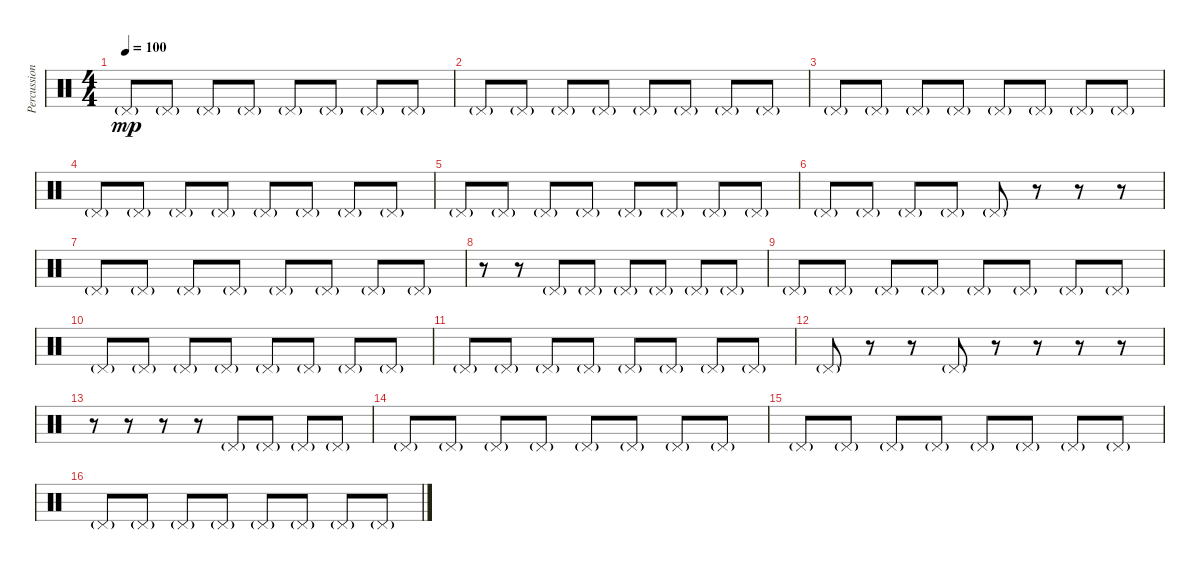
\track ("Percussion" "Percussion") {instrument percussion}
\staff {score}
\articulation defaults
\ts (4 4)
\tempo 100
\clef neutral
\ks c "Pedal Hi-Hat (hit)"{g}.8{dy mp} "Pedal Hi-Hat (hit)"{g}.8 "Pedal Hi-Hat (hit)"{g}.8 "Pedal Hi-Hat (hit)"{g}.8 "Pedal Hi-Hat (hit)"{g}.8 "Pedal Hi-Hat (hit)"{g}.8 "Pedal Hi-Hat (hit)"{g}.8 "Pedal Hi-Hat (hit)"{g}.8
|
"Pedal Hi-Hat (hit)"{g}.8 "Pedal Hi-Hat (hit)"{g}.8 "Pedal Hi-Hat (hit)"{g}.8 "Pedal Hi-Hat (hit)"{g}.8 "Pedal Hi-Hat (hit)"{g}.8 "Pedal Hi-Hat (hit)"{g}.8 "Pedal Hi-Hat (hit)"{g}.8 "Pedal Hi-Hat (hit)"{g}.8 |
"Pedal Hi-Hat (hit)"{g}.8 "Pedal Hi-Hat (hit)"{g}.8 "Pedal Hi-Hat (hit)"{g}.8 "Pedal Hi-Hat (hit)"{g}.8 "Pedal Hi-Hat (hit)"{g}.8 "Pedal Hi-Hat (hit)"{g}.8 "Pedal Hi-Hat (hit)"{g}.8 "Pedal Hi-Hat (hit)"{g}.8 |
"Pedal Hi-Hat (hit)"{g}.8 "Pedal Hi-Hat (hit)"{g}.8 "Pedal Hi-Hat (hit)"{g}.8 "Pedal Hi-Hat (hit)"{g}.8 "Pedal Hi-Hat (hit)"{g}.8 "Pedal Hi-Hat (hit)"{g}.8 "Pedal Hi-Hat (hit)"{g}.8 "Pedal Hi-Hat (hit)"{g}.8 |
"Pedal Hi-Hat (hit)"{g}.8 "Pedal Hi-Hat (hit)"{g}.8 "Pedal Hi-Hat (hit)"{g}.8 "Pedal Hi-Hat (hit)"{g}.8 "Pedal Hi-Hat (hit)"{g}.8 "Pedal Hi-Hat (hit)"{g}.8 "Pedal Hi-Hat (hit)"{g}.8 "Pedal Hi-Hat (hit)"{g}.8 |
"Pedal Hi-Hat (hit)"{g}.8 "Pedal Hi-Hat (hit)"{g}.8 "Pedal Hi-Hat (hit)"{g}.8 "Pedal Hi-Hat (hit)"{g}.8 "Pedal Hi-Hat (hit)"{g}.8 r.8 r.8 r.8 |
"Pedal Hi-Hat (hit)"{g}.8 "Pedal Hi-Hat (hit)"{g}.8 "Pedal Hi-Hat (hit)"{g}.8 "Pedal Hi-Hat (hit)"{g}.8 "Pedal Hi-Hat (hit)"{g}.8 "Pedal Hi-Hat (hit)"{g}.8 "Pedal Hi-Hat (hit)"{g}.8 "Pedal Hi-Hat (hit)"{g}.8 |
r.8 r.8 "Pedal Hi-Hat (hit)"{g}.8 "Pedal Hi-Hat (hit)"{g}.8 "Pedal Hi-Hat (hit)"{g}.8 "Pedal Hi-Hat (hit)"{g}.8 "Pedal Hi-Hat (hit)"{g}.8 "Pedal Hi-Hat (hit)"{g}.8 |
"Pedal Hi-Hat (hit)"{g}.8 "Pedal Hi-Hat (hit)"{g}.8 "Pedal Hi-Hat (hit)"{g}.8 "Pedal Hi-Hat (hit)"{g}.8 "Pedal Hi-Hat (hit)"{g}.8 "Pedal Hi-Hat (hit)"{g}.8 "Pedal Hi-Hat (hit)"{g}.8 "Pedal Hi-Hat (hit)"{g}.8 |
"Pedal Hi-Hat (hit)"{g}.8 "Pedal Hi-Hat (hit)"{g}.8 "Pedal Hi-Hat (hit)"{g}.8 "Pedal Hi-Hat (hit)"{g}.8 "Pedal Hi-Hat (hit)"{g}.8 "Pedal Hi-Hat (hit)"{g}.8 "Pedal Hi-Hat (hit)"{g}.8 "Pedal Hi-Hat (hit)"{g}.8 |
"Pedal Hi-Hat (hit)"{g}.8 "Pedal Hi-Hat (hit)"{g}.8 "Pedal Hi-Hat (hit)"{g}.8 "Pedal Hi-Hat (hit)"{g}.8 "Pedal Hi-Hat (hit)"{g}.8 "Pedal Hi-Hat (hit)"{g}.8 "Pedal Hi-Hat (hit)"{g}.8 "Pedal Hi-Hat (hit)"{g}.8 |
"Pedal Hi-Hat (hit)"{g}.8 r.8 r.8 "Pedal Hi-Hat (hit)"{g}.8 r.8 r.8 r.8 r.8 |
r.8 r.8 r.8 r.8 "Pedal Hi-Hat (hit)"{g}.8 "Pedal Hi-Hat (hit)"{g}.8 "Pedal Hi-Hat (hit)"{g}.8 "Pedal Hi-Hat (hit)"{g}.8 |
"Pedal Hi-Hat (hit)"{g}.8 "Pedal Hi-Hat (hit)"{g}.8 "Pedal Hi-Hat (hit)"{g}.8 "Pedal Hi-Hat (hit)"{g}.8 "Pedal Hi-Hat (hit)"{g}.8 "Pedal Hi-Hat (hit)"{g}.8 "Pedal Hi-Hat (hit)"{g}.8 "Pedal Hi-Hat (hit)"{g}.8 |
"Pedal Hi-Hat (hit)"{g}.8 "Pedal Hi-Hat (hit)"{g}.8 "Pedal Hi-Hat (hit)"{g}.8 "Pedal Hi-Hat (hit)"{g}.8 "Pedal Hi-Hat (hit)"{g}.8 "Pedal Hi-Hat (hit)"{g}.8 "Pedal Hi-Hat (hit)"{g}.8 "Pedal Hi-Hat (hit)"{g}.8 |
"Pedal Hi-Hat (hit)"{g}.8 "Pedal Hi-Hat (hit)"{g}.8 "Pedal Hi-Hat (hit)"{g}.8 "Pedal Hi-Hat (hit)"{g}.8 "Pedal Hi-Hat (hit)"{g}.8 "Pedal Hi-Hat (hit)"{g}.8 "Pedal Hi-Hat (hit)"{g}.8 "Pedal Hi-Hat (hit)"{g}.8
